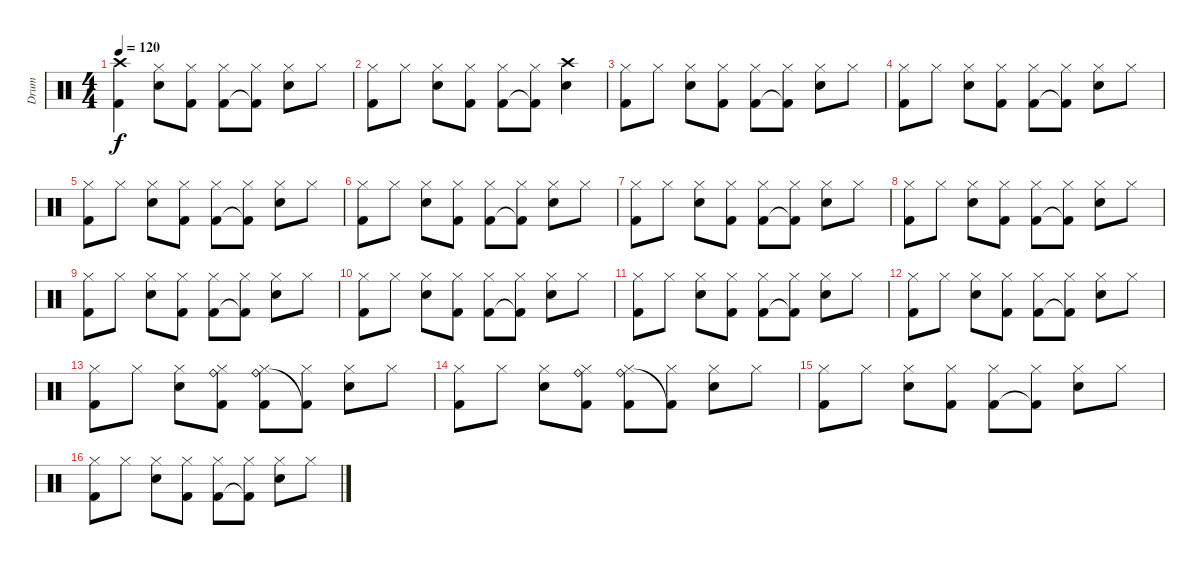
\track ("Drum" "Drum") {instrument percussion}
\staff {score}
\articulation defaults
\ts (4 4)
\tempo 120
\clef neutral
\ks c
("Crash high (hit)" "Kick (hit) 2").4{dy f} ("Hi-Hat (closed)" "Snare (hit) 2").8 ("Hi-Hat (closed)" "Kick (hit) 2").8 ("Hi-Hat (closed)" "Kick (hit) 2").8 ("Hi-Hat (closed)" "Kick (hit) 2"{t}).8 ("Hi-Hat (closed)" "Snare (hit) 2").8 "Hi-Hat (closed)".8 |
("Hi-Hat (closed)" "Kick (hit) 2").8 "Hi-Hat (closed)".8 ("Hi-Hat (closed)" "Snare (hit) 2").8 ("Hi-Hat (closed)" "Kick (hit) 2").8 ("Hi-Hat (closed)" "Kick (hit) 2").8 ("Hi-Hat (closed)" "Kick (hit) 2"{t}).8 ("Crash high (hit)" "Snare (hit) 2").4 |
("Hi-Hat (closed)" "Kick (hit) 2").8 "Hi-Hat (closed)".8 ("Hi-Hat (closed)" "Snare (hit) 2").8 ("Hi-Hat (closed)" "Kick (hit) 2").8 ("Hi-Hat (closed)" "Kick (hit) 2").8 ("Hi-Hat (closed)" "Kick (hit) 2"{t}).8 ("Hi-Hat (closed)" "Snare (hit) 2").8 "Hi-Hat (closed)".8 |
("Hi-Hat (closed)" "Kick (hit) 2").8 "Hi-Hat (closed)".8 ("Hi-Hat (closed)" "Snare (hit) 2").8 ("Hi-Hat (closed)" "Kick (hit) 2").8 ("Hi-Hat (closed)" "Kick (hit) 2").8 ("Hi-Hat (closed)" "Kick (hit) 2"{t}).8 ("Hi-Hat (closed)" "Snare (hit) 2").8 "Hi-Hat (closed)".8 |
("Hi-Hat (closed)" "Kick (hit) 2").8 "Hi-Hat (closed)".8 ("Hi-Hat (closed)" "Snare (hit) 2").8 ("Hi-Hat (closed)" "Kick (hit) 2").8 ("Hi-Hat (closed)" "Kick (hit) 2").8 ("Hi-Hat (closed)" "Kick (hit) 2"{t}).8 ("Hi-Hat (closed)" "Snare (hit) 2").8 "Hi-Hat (closed)".8 |
("Hi-Hat (closed)" "Kick (hit) 2").8 "Hi-Hat (closed)".8 ("Hi-Hat (closed)" "Snare (hit) 2").8 ("Hi-Hat (closed)" "Kick (hit) 2").8 ("Hi-Hat (closed)" "Kick (hit) 2").8 ("Hi-Hat (closed)" "Kick (hit) 2"{t}).8 ("Hi-Hat (closed)" "Snare (hit) 2").8 "Hi-Hat (closed)".8 |
("Hi-Hat (closed)" "Kick (hit) 2").8 "Hi-Hat (closed)".8 ("Hi-Hat (closed)" "Snare (hit) 2").8 ("Hi-Hat (closed)" "Kick (hit) 2").8 ("Hi-Hat (closed)" "Kick (hit) 2").8 ("Hi-Hat (closed)" "Kick (hit) 2"{t}).8 ("Hi-Hat (closed)" "Snare (hit) 2").8 "Hi-Hat (closed)".8 |
("Hi-Hat (closed)" "Kick (hit) 2").8 "Hi-Hat (closed)".8 ("Hi-Hat (closed)" "Snare (hit) 2").8 ("Hi-Hat (closed)" "Kick (hit) 2").8 ("Hi-Hat (closed)" "Kick (hit) 2").8 ("Hi-Hat (closed)" "Kick (hit) 2"{t}).8 ("Hi-Hat (closed)" "Snare (hit) 2").8 "Hi-Hat (closed)".8 |
("Hi-Hat (closed)" "Kick (hit) 2").8 "Hi-Hat (closed)".8 ("Hi-Hat (closed)" "Snare (hit) 2").8 ("Hi-Hat (closed)" "Kick (hit) 2").8 ("Hi-Hat (closed)" "Kick (hit) 2").8 ("Hi-Hat (closed)" "Kick (hit) 2"{t}).8 ("Hi-Hat (closed)" "Snare (hit) 2").8 "Hi-Hat (closed)".8 |
("Hi-Hat (closed)" "Kick (hit) 2").8 "Hi-Hat (closed)".8 ("Hi-Hat (closed)" "Snare (hit) 2").8 ("Hi-Hat (closed)" "Kick (hit) 2").8 ("Hi-Hat (closed)" "Kick (hit) 2").8 ("Hi-Hat (closed)" "Kick (hit) 2"{t}).8 ("Hi-Hat (closed)" "Snare (hit) 2").8 "Hi-Hat (closed)".8 |
("Hi-Hat (closed)" "Kick (hit) 2").8 "Hi-Hat (closed)".8 ("Hi-Hat (closed)" "Snare (hit) 2").8 ("Hi-Hat (closed)" "Kick (hit) 2").8 ("Hi-Hat (closed)" "Kick (hit) 2").8 ("Hi-Hat (closed)" "Kick (hit) 2"{t}).8 ("Hi-Hat (closed)" "Snare (hit) 2").8 "Hi-Hat (closed)".8 |
("Hi-Hat (closed)" "Kick (hit) 2").8 "Hi-Hat (closed)".8 ("Hi-Hat (closed)" "Snare (hit) 2").8 ("Hi-Hat (closed)" "Kick (hit) 2").8 ("Hi-Hat (closed)" "Kick (hit) 2").8 ("Hi-Hat (closed)" "Kick (hit) 2"{t}).8 ("Hi-Hat (closed)" "Snare (hit) 2").8 "Hi-Hat (closed)".8 |
("Hi-Hat (closed)" "Kick (hit) 2").8 "Hi-Hat (closed)".8 ("Hi-Hat (closed)" "Snare (hit) 2").8 ("Hi-Hat (closed)" "Ride (bell)" "Kick (hit) 2").8 ("Hi-Hat (closed)" "Ride (bell)" "Kick (hit) 2").8 ("Hi-Hat (closed)" "Kick (hit) 2"{t}).8 ("Hi-Hat (closed)" "Snare (hit) 2").8 "Hi-Hat (closed)".8 |
("Hi-Hat (closed)" "Kick (hit) 2").8 "Hi-Hat (closed)".8 ("Hi-Hat (closed)" "Snare (hit) 2").8 ("Hi-Hat (closed)" "Ride (bell)" "Kick (hit) 2").8 ("Hi-Hat (closed)" "Ride (bell)" "Kick (hit) 2").8 ("Hi-Hat (closed)" "Kick (hit) 2"{t}).8 ("Hi-Hat (closed)" "Snare (hit) 2").8 "Hi-Hat (closed)".8 |
("Hi-Hat (closed)" "Kick (hit) 2").8 "Hi-Hat (closed)".8 ("Hi-Hat (closed)" "Snare (hit) 2").8 ("Hi-Hat (closed)" "Kick (hit) 2").8 ("Hi-Hat (closed)" "Kick (hit) 2").8 ("Hi-Hat (closed)" "Kick (hit) 2"{t}).8 ("Hi-Hat (closed)" "Snare (hit) 2").8 "Hi-Hat (closed)".8 |
("Hi-Hat (closed)" "Kick (hit) 2").8 "Hi-Hat (closed)".8 ("Hi-Hat (closed)" "Snare (hit) 2").8 ("Hi-Hat (closed)" "Kick (hit) 2").8 ("Hi-Hat (closed)" "Kick (hit) 2").8 ("Hi-Hat (closed)" "Kick (hit) 2"{t}).8 ("Hi-Hat (closed)" "Snare (hit) 2").8 "Hi-Hat (closed)".8
